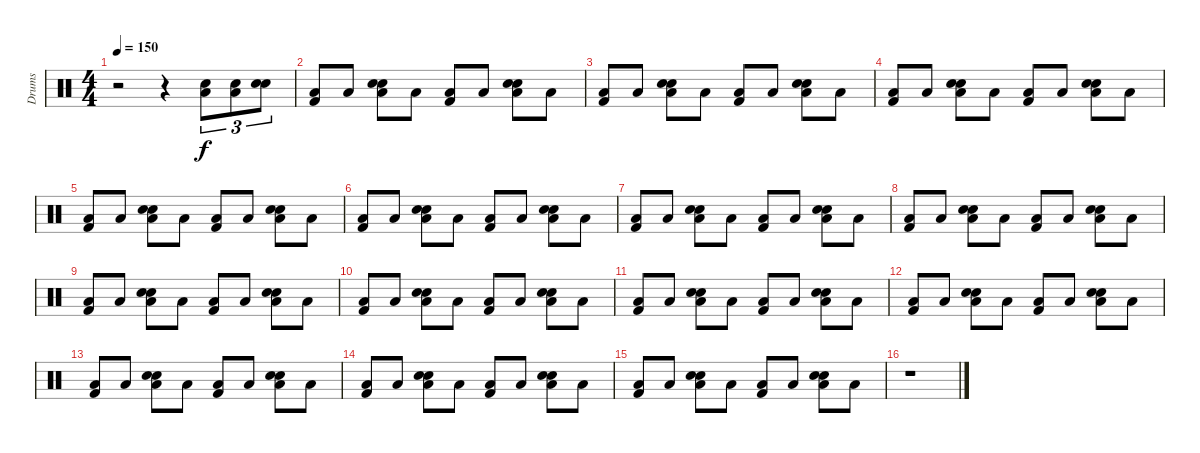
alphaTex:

\track ("Drums" "Drums") {instrument percussion}
\staff {score}
\articulation defaults
\ts (4 4)
\tempo 150
\clef neutral
\ks c
r.2{dy f} r.4 ("Low Floor Tom (hit)" "Electric Snare (hit)").8{tu (3 2)} ("Low Floor Tom (hit)" "Electric Snare (hit)").8{tu (3 2)} ("Snare (hit) 2" "Electric Snare (hit)").8{tu (3 2)} |
("Low Floor Tom (hit)" "Kick (hit) 2").8 "Low Floor Tom (hit)".8 ("Low Floor Tom (hit)" "Electric Snare (hit)" "Snare (hit) 2").8 "Low Floor Tom (hit)".8 ("Low Floor Tom (hit)" "Kick (hit) 2").8 "Low Floor Tom (hit)".8 ("Low Floor Tom (hit)" "Electric Snare (hit)" "Snare (hit) 2").8 "Low Floor Tom (hit)".8 |
("Low Floor Tom (hit)" "Kick (hit) 2").8 "Low Floor Tom (hit)".8 ("Low Floor Tom (hit)" "Electric Snare (hit)" "Snare (hit) 2").8 "Low Floor Tom (hit)".8 ("Low Floor Tom (hit)" "Kick (hit) 2").8 "Low Floor Tom (hit)".8 ("Low Floor Tom (hit)" "Electric Snare (hit)" "Snare (hit) 2").8 "Low Floor Tom (hit)".8 |
("Low Floor Tom (hit)" "Kick (hit) 2").8 "Low Floor Tom (hit)".8 ("Low Floor Tom (hit)" "Electric Snare (hit)" "Snare (hit) 2").8 "Low Floor Tom (hit)".8 ("Low Floor Tom (hit)" "Kick (hit) 2").8 "Low Floor Tom (hit)".8 ("Low Floor Tom (hit)" "Electric Snare (hit)" "Snare (hit) 2").8 "Low Floor Tom (hit)".8 |
("Low Floor Tom (hit)" "Kick (hit) 2").8 "Low Floor Tom (hit)".8 ("Low Floor Tom (hit)" "Electric Snare (hit)" "Snare (hit) 2").8 "Low Floor Tom (hit)".8 ("Low Floor Tom (hit)" "Kick (hit) 2").8 "Low Floor Tom (hit)".8 ("Low Floor Tom (hit)" "Electric Snare (hit)" "Snare (hit) 2").8 "Low Floor Tom (hit)".8 |
("Low Floor Tom (hit)" "Kick (hit) 2").8 "Low Floor Tom (hit)".8 ("Low Floor Tom (hit)" "Electric Snare (hit)" "Snare (hit) 2").8 "Low Floor Tom (hit)".8 ("Low Floor Tom (hit)" "Kick (hit) 2").8 "Low Floor Tom (hit)".8 ("Low Floor Tom (hit)" "Electric Snare (hit)" "Snare (hit) 2").8 "Low Floor Tom (hit)".8 |
("Low Floor Tom (hit)" "Kick (hit) 2").8 "Low Floor Tom (hit)".8 ("Low Floor Tom (hit)" "Electric Snare (hit)" "Snare (hit) 2").8 "Low Floor Tom (hit)".8 ("Low Floor Tom (hit)" "Kick (hit) 2").8 "Low Floor Tom (hit)".8 ("Low Floor Tom (hit)" "Electric Snare (hit)" "Snare (hit) 2").8 "Low Floor Tom (hit)".8 |
("Low Floor Tom (hit)" "Kick (hit) 2").8 "Low Floor Tom (hit)".8 ("Low Floor Tom (hit)" "Electric Snare (hit)" "Snare (hit) 2").8 "Low Floor Tom (hit)".8 ("Low Floor Tom (hit)" "Kick (hit) 2").8 "Low Floor Tom (hit)".8 ("Low Floor Tom (hit)" "Electric Snare (hit)" "Snare (hit) 2").8 "Low Floor Tom (hit)".8 |
("Low Floor Tom (hit)" "Kick (hit) 2").8 "Low Floor Tom (hit)".8 ("Low Floor Tom (hit)" "Electric Snare (hit)" "Snare (hit) 2").8 "Low Floor Tom (hit)".8 ("Low Floor Tom (hit)" "Kick (hit) 2").8 "Low Floor Tom (hit)".8 ("Low Floor Tom (hit)" "Electric Snare (hit)" "Snare (hit) 2").8 "Low Floor Tom (hit)".8 |
("Low Floor Tom (hit)" "Kick (hit) 2").8 "Low Floor Tom (hit)".8 ("Low Floor Tom (hit)" "Electric Snare (hit)" "Snare (hit) 2").8 "Low Floor Tom (hit)".8 ("Low Floor Tom (hit)" "Kick (hit) 2").8 "Low Floor Tom (hit)".8 ("Low Floor Tom (hit)" "Electric Snare (hit)" "Snare (hit) 2").8 "Low Floor Tom (hit)".8 |
("Low Floor Tom (hit)" "Kick (hit) 2").8 "Low Floor Tom (hit)".8 ("Low Floor Tom (hit)" "Electric Snare (hit)" "Snare (hit) 2").8 "Low Floor Tom (hit)".8 ("Low Floor Tom (hit)" "Kick (hit) 2").8 "Low Floor Tom (hit)".8 ("Low Floor Tom (hit)" "Electric Snare (hit)" "Snare (hit) 2").8 "Low Floor Tom (hit)".8 |
("Low Floor Tom (hit)" "Kick (hit) 2").8 "Low Floor Tom (hit)".8 ("Low Floor Tom (hit)" "Electric Snare (hit)" "Snare (hit) 2").8 "Low Floor Tom (hit)".8 ("Low Floor Tom (hit)" "Kick (hit) 2").8 "Low Floor Tom (hit)".8 ("Low Floor Tom (hit)" "Electric Snare (hit)" "Snare (hit) 2").8 "Low Floor Tom (hit)".8 |
("Low Floor Tom (hit)" "Kick (hit) 2").8 "Low Floor Tom (hit)".8 ("Low Floor Tom (hit)" "Electric Snare (hit)" "Snare (hit) 2").8 "Low Floor Tom (hit)".8 ("Low Floor Tom (hit)" "Kick (hit) 2").8 "Low Floor Tom (hit)".8 ("Low Floor Tom (hit)" "Electric Snare (hit)" "Snare (hit) 2").8 "Low Floor Tom (hit)".8 |
("Low Floor Tom (hit)" "Kick (hit) 2").8 "Low Floor Tom (hit)".8 ("Low Floor Tom (hit)" "Electric Snare (hit)" "Snare (hit) 2").8 "Low Floor Tom (hit)".8 ("Low Floor Tom (hit)" "Kick (hit) 2").8 "Low Floor Tom (hit)".8 ("Low Floor Tom (hit)" "Electric Snare (hit)" "Snare (hit) 2").8 "Low Floor Tom (hit)".8 |
("Low Floor Tom (hit)" "Kick (hit) 2").8 "Low Floor Tom (hit)".8 ("Low Floor Tom (hit)" "Electric Snare (hit)" "Snare (hit) 2").8 "Low Floor Tom (hit)".8 ("Low Floor Tom (hit)" "Kick (hit) 2").8 "Low Floor Tom (hit)".8 ("Low Floor Tom (hit)" "Electric Snare (hit)" "Snare (hit) 2").8 "Low Floor Tom (hit)".8 |
r.1
